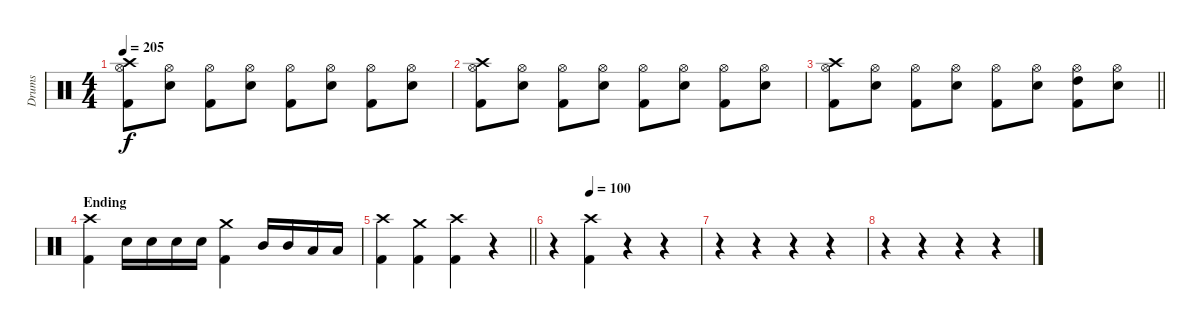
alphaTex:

\track ("Drums" "Drums") {instrument percussion}
\staff {score}
\articulation defaults
\ts (4 4)
\tempo 205
\clef neutral
\ks c
("Crash high (hit)" "Hi-Hat (open)" "Kick (hit) 2").8{dy f} ("Hi-Hat (open)" "Snare (hit) 2").8 ("Hi-Hat (open)" "Kick (hit) 2").8 ("Hi-Hat (open)" "Snare (hit) 2").8 ("Hi-Hat (open)" "Kick (hit) 2").8 ("Hi-Hat (open)" "Snare (hit) 2").8 ("Hi-Hat (open)" "Kick (hit) 2").8 ("Hi-Hat (open)" "Snare (hit) 2").8 |
("Crash high (hit)" "Hi-Hat (open)" "Kick (hit) 2").8 ("Hi-Hat (open)" "Snare (hit) 2").8 ("Hi-Hat (open)" "Kick (hit) 2").8 ("Hi-Hat (open)" "Snare (hit) 2").8 ("Hi-Hat (open)" "Kick (hit) 2").8 ("Hi-Hat (open)" "Snare (hit) 2").8 ("Hi-Hat (open)" "Kick (hit) 2").8 ("Hi-Hat (open)" "Snare (hit) 2").8 |
\barLineRight lightlight
("Crash high (hit)" "Hi-Hat (open)" "Kick (hit) 2").8 ("Hi-Hat (open)" "Snare (hit) 2").8 ("Hi-Hat (open)" "Kick (hit) 2").8 ("Hi-Hat (open)" "Snare (hit) 2").8 ("Hi-Hat (open)" "Kick (hit) 2").8 ("Hi-Hat (open)" "Snare (hit) 2").8 ("Hi-Hat (open)" "High Tom (hit)" "Kick (hit) 2").8 ("Hi-Hat (open)" "Snare (hit) 2").8 |
\section ("" "Ending")
("Crash high (hit)" "Kick (hit) 2").4 "Snare (hit) 2".16 "Snare (hit) 2".16 "Snare (hit) 2".16 "Snare (hit) 2".16 ("Crash medium (hit)" "Kick (hit) 2").4 "Mid Tom (hit)".16 "Mid Tom (hit)".16 "Low Tom (hit)".16 "Low Tom (hit)".16 |
\barLineRight lightlight
("Crash high (hit)" "Kick (hit) 2").4 ("Crash medium (hit)" "Kick (hit) 2").4 ("Crash high (hit)" "Kick (hit) 2").4 r.4 |
\tempo (100 0.25)
r.4 ("Crash high (hit)" "Kick (hit) 2").4 r.4 r.4 |
r.4 r.4 r.4 r.4 |
r.4 r.4 r.4 r.4
